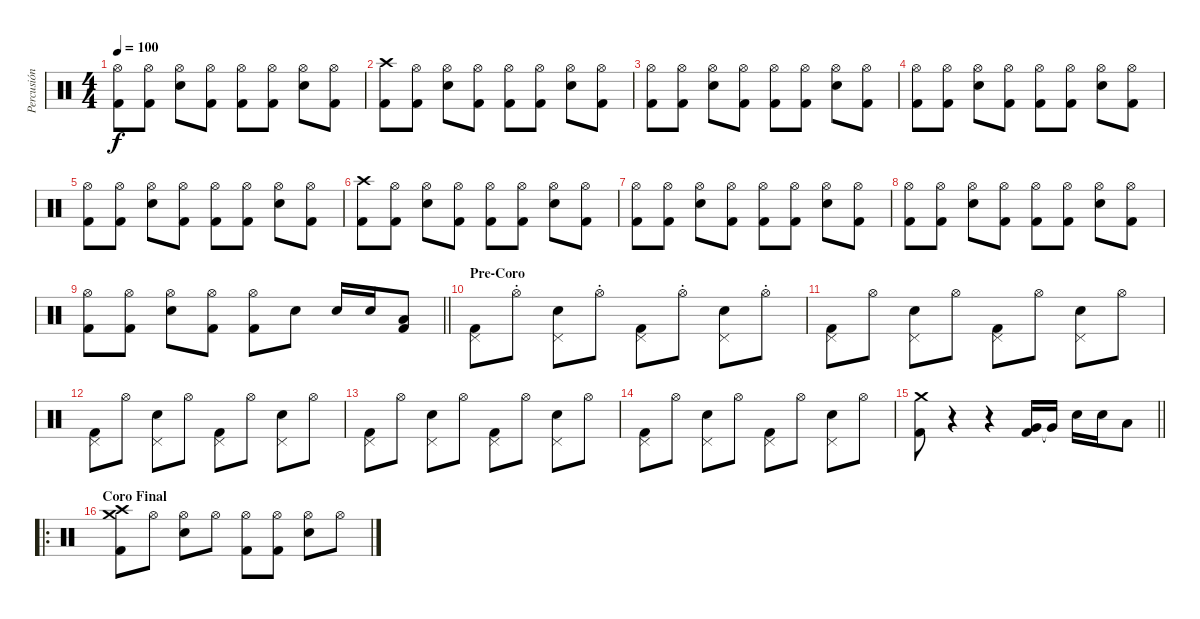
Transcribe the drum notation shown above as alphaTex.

\track ("Percusión" "Percusión") {instrument percussion}
\staff {score}
\articulation defaults
\ts (4 4)
\tempo 100
\clef neutral
\ks c
("Hi-Hat (open)" "Kick (hit) 2").8{dy f} ("Hi-Hat (open)" "Kick (hit) 2").8 ("Hi-Hat (open)" "Snare (hit) 2").8 ("Hi-Hat (open)" "Kick (hit) 2").8 ("Hi-Hat (open)" "Kick (hit) 2").8 ("Hi-Hat (open)" "Kick (hit) 2").8 ("Hi-Hat (open)" "Snare (hit) 2").8 ("Hi-Hat (open)" "Kick (hit) 2").8 |
("Crash high (hit)" "Kick (hit) 2").8 ("Hi-Hat (open)" "Kick (hit) 2").8 ("Hi-Hat (open)" "Snare (hit) 2").8 ("Hi-Hat (open)" "Kick (hit) 2").8 ("Hi-Hat (open)" "Kick (hit) 2").8 ("Hi-Hat (open)" "Kick (hit) 2").8 ("Hi-Hat (open)" "Snare (hit) 2").8 ("Hi-Hat (open)" "Kick (hit) 2").8 |
("Hi-Hat (open)" "Kick (hit) 2").8 ("Hi-Hat (open)" "Kick (hit) 2").8 ("Hi-Hat (open)" "Snare (hit) 2").8 ("Hi-Hat (open)" "Kick (hit) 2").8 ("Hi-Hat (open)" "Kick (hit) 2").8 ("Hi-Hat (open)" "Kick (hit) 2").8 ("Hi-Hat (open)" "Snare (hit) 2").8 ("Hi-Hat (open)" "Kick (hit) 2").8 |
("Hi-Hat (open)" "Kick (hit) 2").8 ("Hi-Hat (open)" "Kick (hit) 2").8 ("Hi-Hat (open)" "Snare (hit) 2").8 ("Hi-Hat (open)" "Kick (hit) 2").8 ("Hi-Hat (open)" "Kick (hit) 2").8 ("Hi-Hat (open)" "Kick (hit) 2").8 ("Hi-Hat (open)" "Snare (hit) 2").8 ("Hi-Hat (open)" "Kick (hit) 2").8 |
("Hi-Hat (open)" "Kick (hit) 2").8 ("Hi-Hat (open)" "Kick (hit) 2").8 ("Hi-Hat (open)" "Snare (hit) 2").8 ("Hi-Hat (open)" "Kick (hit) 2").8 ("Hi-Hat (open)" "Kick (hit) 2").8 ("Hi-Hat (open)" "Kick (hit) 2").8 ("Hi-Hat (open)" "Snare (hit) 2").8 ("Hi-Hat (open)" "Kick (hit) 2").8 |
("Crash high (hit)" "Kick (hit) 2").8 ("Hi-Hat (open)" "Kick (hit) 2").8 ("Hi-Hat (open)" "Snare (hit) 2").8 ("Hi-Hat (open)" "Kick (hit) 2").8 ("Hi-Hat (open)" "Kick (hit) 2").8 ("Hi-Hat (open)" "Kick (hit) 2").8 ("Hi-Hat (open)" "Snare (hit) 2").8 ("Hi-Hat (open)" "Kick (hit) 2").8 |
("Hi-Hat (open)" "Kick (hit) 2").8 ("Hi-Hat (open)" "Kick (hit) 2").8 ("Hi-Hat (open)" "Snare (hit) 2").8 ("Hi-Hat (open)" "Kick (hit) 2").8 ("Hi-Hat (open)" "Kick (hit) 2").8 ("Hi-Hat (open)" "Kick (hit) 2").8 ("Hi-Hat (open)" "Snare (hit) 2").8 ("Hi-Hat (open)" "Kick (hit) 2").8 |
("Hi-Hat (open)" "Kick (hit) 2").8 ("Hi-Hat (open)" "Kick (hit) 2").8 ("Hi-Hat (open)" "Snare (hit) 2").8 ("Hi-Hat (open)" "Kick (hit) 2").8 ("Hi-Hat (open)" "Kick (hit) 2").8 ("Hi-Hat (open)" "Kick (hit) 2").8 ("Hi-Hat (open)" "Snare (hit) 2").8 ("Hi-Hat (open)" "Kick (hit) 2").8 |
\barLineRight lightlight
("Hi-Hat (open)" "Kick (hit) 2").8 ("Hi-Hat (open)" "Kick (hit) 2").8 ("Hi-Hat (open)" "Snare (hit) 2").8 ("Hi-Hat (open)" "Kick (hit) 2").8 ("Hi-Hat (open)" "Kick (hit) 2").8 "Snare (hit) 2".8 "Snare (hit) 2".16 "Snare (hit) 2".16 ("Low Tom (hit)" "Kick (hit) 2").8 |
\section ("" "Pre-Coro")
("Pedal Hi-Hat (hit)" "Kick (hit) 2").8 "Hi-Hat (open)"{st}.8 ("Pedal Hi-Hat (hit)" "Snare (hit) 2").8 "Hi-Hat (open)"{st}.8 ("Pedal Hi-Hat (hit)" "Kick (hit) 2").8 "Hi-Hat (open)"{st}.8 ("Pedal Hi-Hat (hit)" "Snare (hit) 2").8 "Hi-Hat (open)"{st}.8 |
("Pedal Hi-Hat (hit)" "Kick (hit) 2").8 "Hi-Hat (open)".8 ("Pedal Hi-Hat (hit)" "Snare (hit) 2").8 "Hi-Hat (open)".8 ("Pedal Hi-Hat (hit)" "Kick (hit) 2").8 "Hi-Hat (open)".8 ("Pedal Hi-Hat (hit)" "Snare (hit) 2").8 "Hi-Hat (open)".8 |
("Pedal Hi-Hat (hit)" "Kick (hit) 2").8 "Hi-Hat (open)".8 ("Pedal Hi-Hat (hit)" "Snare (hit) 2").8 "Hi-Hat (open)".8 ("Pedal Hi-Hat (hit)" "Kick (hit) 2").8 "Hi-Hat (open)".8 ("Pedal Hi-Hat (hit)" "Snare (hit) 2").8 "Hi-Hat (open)".8 |
("Pedal Hi-Hat (hit)" "Kick (hit) 2").8 "Hi-Hat (open)".8 ("Pedal Hi-Hat (hit)" "Snare (hit) 2").8 "Hi-Hat (open)".8 ("Pedal Hi-Hat (hit)" "Kick (hit) 2").8 "Hi-Hat (open)".8 ("Pedal Hi-Hat (hit)" "Snare (hit) 2").8 "Hi-Hat (open)".8 |
("Pedal Hi-Hat (hit)" "Kick (hit) 2").8 "Hi-Hat (open)".8 ("Pedal Hi-Hat (hit)" "Snare (hit) 2").8 "Hi-Hat (open)".8 ("Pedal Hi-Hat (hit)" "Kick (hit) 2").8 "Hi-Hat (open)".8 ("Pedal Hi-Hat (hit)" "Snare (hit) 2").8 "Hi-Hat (open)".8 |
\barLineRight lightlight
("Crash medium (hit)" "Kick (hit) 2").8 r.4 r.4 ("Very Low Tom (hit)" "Kick (hit) 2").16 "Very Low Tom (hit)"{t}.16 "Snare (hit) 2".16 "Snare (hit) 2".16 "Low Tom (hit)".8 |
\ro
\section ("" "Coro Final")
("Crash medium (hit)" "Crash high (hit)" "Kick (hit) 2").8 "Hi-Hat (open)".8 ("Hi-Hat (open)" "Snare (hit) 2").8 "Hi-Hat (open)".8 ("Hi-Hat (open)" "Kick (hit) 2").8 ("Hi-Hat (open)" "Kick (hit) 2").8 ("Hi-Hat (open)" "Snare (hit) 2").8 "Hi-Hat (open)".8
